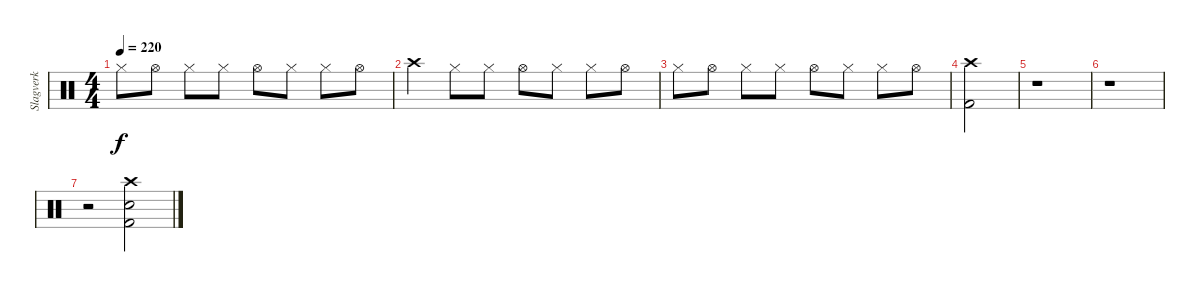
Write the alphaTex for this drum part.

\track ("Slagverk" "Slagverk") {instrument percussion}
\staff {score}
\articulation defaults
\ts (4 4)
\tempo 220
\clef neutral
\ks c "Hi-Hat (closed)".8{dy f} "Hi-Hat (open)".8 "Hi-Hat (closed)".8 "Hi-Hat (closed)".8 "Hi-Hat (open)".8 "Hi-Hat (closed)".8 "Hi-Hat (closed)".8 "Hi-Hat (open)".8
|
"Crash high (hit)".4 "Hi-Hat (closed)".8 "Hi-Hat (closed)".8 "Hi-Hat (open)".8 "Hi-Hat (closed)".8 "Hi-Hat (closed)".8 "Hi-Hat (open)".8 |
"Hi-Hat (closed)".8 "Hi-Hat (open)".8 "Hi-Hat (closed)".8 "Hi-Hat (closed)".8 "Hi-Hat (open)".8 "Hi-Hat (closed)".8 "Hi-Hat (closed)".8 "Hi-Hat (open)".8 |
("Crash high (hit)" "Kick (hit) 2").2 |
r.1 |
r.1 |
r.2 ("Crash high (hit)" "Snare (hit) 2" "Kick (hit) 2").2
